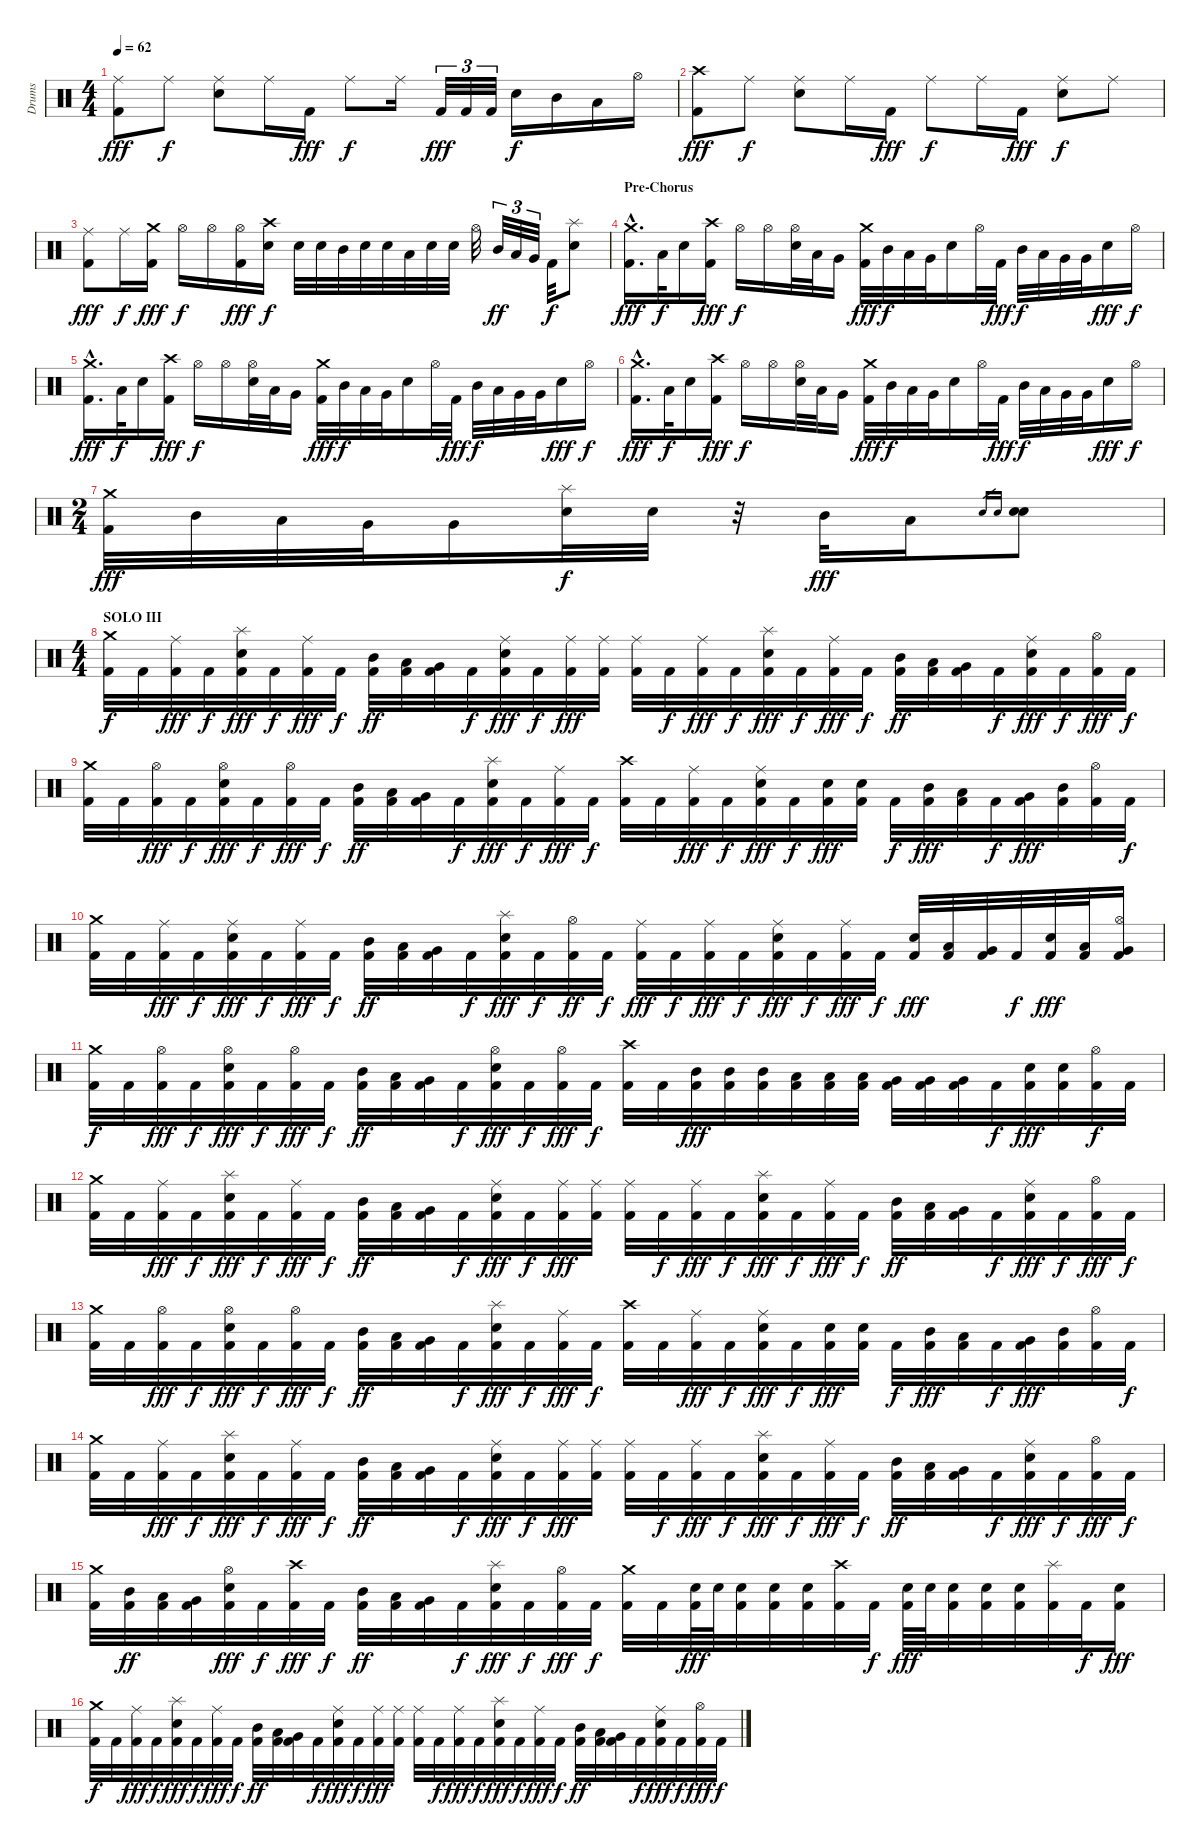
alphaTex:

\track ("Drums" "Drums") {instrument percussion}
\staff {score}
\articulation defaults
\ts (4 4)
\tempo 62
\clef neutral
\ks c
("Ride (middle)" "Kick (hit) 2").8{dy fff} "Ride (middle)".8{dy f} ("Ride (middle)" "Electric Snare (hit)").8 "Ride (middle)".16 "Kick (hit) 2".16{dy fff} "Ride (middle)".8{dy f} "Ride (middle)".16 "Kick (hit) 2".32{tu (3 2) dy fff} "Kick (hit) 2".32{tu (3 2)} "Kick (hit) 2".32{tu (3 2)} "Electric Snare (hit)".16{dy f} "Mid Tom (hit)".16 "Low Tom (hit)".16 "Hi-Hat (open)".16 |
("Crash high (hit)" "Kick (hit) 2").8{dy fff} "Ride (middle)".8{dy f} ("Ride (middle)" "Electric Snare (hit)").8 "Ride (middle)".16 "Kick (hit) 2".16{dy fff} "Ride (middle)".8{dy f} "Ride (middle)".16 "Kick (hit) 2".16{dy fff} ("Ride (middle)" "Electric Snare (hit)").8{dy f} "Ride (middle)".8 |
("Ride (middle)" "Kick (hit) 2").8{dy fff} "Ride (middle)".16{dy f} ("Crash medium (hit)" "Kick (hit) 2").16{dy fff} "Hi-Hat (open)".16{dy f} "Hi-Hat (open)".16 ("Hi-Hat (open)" "Kick (hit) 2").16{dy fff} ("Crash high (hit)" "Electric Snare (hit)").16{dy f} "Electric Snare (hit)".32 "Electric Snare (hit)".32 "Mid Tom (hit)".32 "Electric Snare (hit)".32 "Electric Snare (hit)".32 "Low Tom (hit)".32 "Electric Snare (hit)".32 "Electric Snare (hit)".32 "Hi-Hat (open)".32 "Mid Tom (hit)".32{tu (3 2) dy ff} "Low Tom (hit)".32{tu (3 2)} "Very Low Tom (hit)".32{tu (3 2)} "Kick (hit) 2".32{dy f} ("Splash (hit)" "Electric Snare (hit)").8 |
\section ("" "Pre-Chorus")
("Crash medium (hit)"{hac} "Kick (hit) 2"{hac}).16{d dy fff} "Low Tom (hit)".32{dy f} "Electric Snare (hit)".16 ("Crash high (hit)" "Kick (hit) 2").16{dy fff} "Hi-Hat (open)".16{dy f} "Hi-Hat (open)".16 ("Hi-Hat (open)" "Electric Snare (hit)").32 "Low Tom (hit)".32 "Very Low Tom (hit)".16 ("Crash medium (hit)" "Kick (hit) 2").32{dy fff} "Mid Tom (hit)".32{dy f} "Low Tom (hit)".32 "Very Low Tom (hit)".32 "Electric Snare (hit)".16 "Hi-Hat (open)".32 "Kick (hit) 2".32{dy fff} "Mid Tom (hit)".32{dy f} "Low Tom (hit)".32 "Very Low Tom (hit)".32 "Very Low Tom (hit)".32 "Electric Snare (hit)".16{dy fff} "Hi-Hat (open)".16{dy f} |
("Crash medium (hit)"{hac} "Kick (hit) 2"{hac}).16{d dy fff} "Low Tom (hit)".32{dy f} "Electric Snare (hit)".16 ("Crash high (hit)" "Kick (hit) 2").16{dy fff} "Hi-Hat (open)".16{dy f} "Hi-Hat (open)".16 ("Hi-Hat (open)" "Electric Snare (hit)").32 "Low Tom (hit)".32 "Very Low Tom (hit)".16 ("Crash medium (hit)" "Kick (hit) 2").32{dy fff} "Mid Tom (hit)".32{dy f} "Low Tom (hit)".32 "Very Low Tom (hit)".32 "Electric Snare (hit)".16 "Hi-Hat (open)".32 "Kick (hit) 2".32{dy fff} "Mid Tom (hit)".32{dy f} "Low Tom (hit)".32 "Very Low Tom (hit)".32 "Very Low Tom (hit)".32 "Electric Snare (hit)".16{dy fff} "Hi-Hat (open)".16{dy f} |
("Crash medium (hit)"{hac} "Kick (hit) 2"{hac}).16{d dy fff} "Low Tom (hit)".32{dy f} "Electric Snare (hit)".16 ("Crash high (hit)" "Kick (hit) 2").16{dy fff} "Hi-Hat (open)".16{dy f} "Hi-Hat (open)".16 ("Hi-Hat (open)" "Electric Snare (hit)").32 "Low Tom (hit)".32 "Very Low Tom (hit)".16 ("Crash medium (hit)" "Kick (hit) 2").32{dy fff} "Mid Tom (hit)".32{dy f} "Low Tom (hit)".32 "Very Low Tom (hit)".32 "Electric Snare (hit)".16 "Hi-Hat (open)".32 "Kick (hit) 2".32{dy fff} "Mid Tom (hit)".32{dy f} "Low Tom (hit)".32 "Very Low Tom (hit)".32 "Very Low Tom (hit)".32 "Electric Snare (hit)".16{dy fff} "Hi-Hat (open)".16{dy f} |
\ts (2 4)
("Crash medium (hit)" "Kick (hit) 2").32{dy fff} "Mid Tom (hit)".32 "Low Tom (hit)".32 "Very Low Tom (hit)".32 "Very Low Tom (hit)".16 ("Splash (hit)" "Electric Snare (hit)").32{dy f} "Electric Snare (hit)".32 r.32 "Mid Tom (hit)".32{dy fff} "Low Tom (hit)".16 "Electric Snare (hit)".16{gr} "Electric Snare (hit)".16{gr} ("Electric Snare (hit)" "Electric Snare (hit)").8 |
\ts (4 4)
\section ("" "SOLO III")
("Crash medium (hit)" "Kick (hit) 2").32{dy f} "Kick (hit) 2".32 ("Ride (middle)" "Kick (hit) 2").32{dy fff} "Kick (hit) 2".32{dy f} ("Splash (hit)" "Electric Snare (hit)" "Kick (hit) 2").32{dy fff} "Kick (hit) 2".32{dy f} ("Ride (middle)" "Kick (hit) 2").32{dy fff} "Kick (hit) 2".32{dy f} ("Mid Tom (hit)" "Kick (hit) 2").32{dy ff} ("Low Tom (hit)" "Kick (hit) 2").32 ("Very Low Tom (hit)" "Kick (hit) 2").32 "Kick (hit) 2".32{dy f} ("Ride (middle)" "Electric Snare (hit)" "Kick (hit) 2").32{dy fff} "Kick (hit) 2".32{dy f} ("Ride (middle)" "Kick (hit) 2").32{dy fff} ("Ride (middle)" "Kick (hit) 2").32 ("Ride (middle)" "Kick (hit) 2").32 "Kick (hit) 2".32{dy f} ("Ride (middle)" "Kick (hit) 2").32{dy fff} "Kick (hit) 2".32{dy f} ("Splash (hit)" "Electric Snare (hit)" "Kick (hit) 2").32{dy fff} "Kick (hit) 2".32{dy f} ("Ride (middle)" "Kick (hit) 2").32{dy fff} "Kick (hit) 2".32{dy f} ("Mid Tom (hit)" "Kick (hit) 2").32{dy ff} ("Low Tom (hit)" "Kick (hit) 2").32 ("Very Low Tom (hit)" "Kick (hit) 2").32 "Kick (hit) 2".32{dy f} ("Ride (middle)" "Electric Snare (hit)" "Kick (hit) 2").32{dy fff} "Kick (hit) 2".32{dy f} ("Hi-Hat (open)" "Kick (hit) 2").32{dy fff} "Kick (hit) 2".32{dy f} |
("Crash medium (hit)" "Kick (hit) 2").32 "Kick (hit) 2".32 ("Hi-Hat (open)" "Kick (hit) 2").32{dy fff} "Kick (hit) 2".32{dy f} ("Hi-Hat (open)" "Electric Snare (hit)" "Kick (hit) 2").32{dy fff} "Kick (hit) 2".32{dy f} ("Hi-Hat (open)" "Kick (hit) 2").32{dy fff} "Kick (hit) 2".32{dy f} ("Mid Tom (hit)" "Kick (hit) 2").32{dy ff} ("Low Tom (hit)" "Kick (hit) 2").32 ("Very Low Tom (hit)" "Kick (hit) 2").32 "Kick (hit) 2".32{dy f} ("Splash (hit)" "Electric Snare (hit)" "Kick (hit) 2").32{dy fff} "Kick (hit) 2".32{dy f} ("Ride (middle)" "Kick (hit) 2").32{dy fff} "Kick (hit) 2".32{dy f} ("Crash high (hit)" "Kick (hit) 2").32 "Kick (hit) 2".32 ("Ride (middle)" "Kick (hit) 2").32{dy fff} "Kick (hit) 2".32{dy f} ("Ride (middle)" "Electric Snare (hit)" "Kick (hit) 2").32{dy fff} "Kick (hit) 2".32{dy f} ("Electric Snare (hit)" "Kick (hit) 2").32{dy fff} ("Electric Snare (hit)" "Kick (hit) 2").32 "Kick (hit) 2".32{dy f} ("Mid Tom (hit)" "Kick (hit) 2").32{dy fff} ("Low Tom (hit)" "Kick (hit) 2").32 "Kick (hit) 2".32{dy f} ("Very Low Tom (hit)" "Kick (hit) 2").32{dy fff} ("Mid Tom (hit)" "Kick (hit) 2").32 ("Hi-Hat (open)" "Kick (hit) 2").32 "Kick (hit) 2".32{dy f} |
("Crash medium (hit)" "Kick (hit) 2").32 "Kick (hit) 2".32 ("Ride (middle)" "Kick (hit) 2").32{dy fff} "Kick (hit) 2".32{dy f} ("Ride (middle)" "Electric Snare (hit)" "Kick (hit) 2").32{dy fff} "Kick (hit) 2".32{dy f} ("Ride (middle)" "Kick (hit) 2").32{dy fff} "Kick (hit) 2".32{dy f} ("Mid Tom (hit)" "Kick (hit) 2").32{dy ff} ("Low Tom (hit)" "Kick (hit) 2").32 ("Very Low Tom (hit)" "Kick (hit) 2").32 "Kick (hit) 2".32{dy f} ("Splash (hit)" "Electric Snare (hit)" "Kick (hit) 2").32{dy fff} "Kick (hit) 2".32{dy f} ("Hi-Hat (open)" "Kick (hit) 2").32{dy ff} "Kick (hit) 2".32{dy f} ("Ride (middle)" "Kick (hit) 2").32{dy fff} "Kick (hit) 2".32{dy f} ("Ride (middle)" "Kick (hit) 2").32{dy fff} "Kick (hit) 2".32{dy f} ("Ride (middle)" "Electric Snare (hit)" "Kick (hit) 2").32{dy fff} "Kick (hit) 2".32{dy f} ("Ride (middle)" "Kick (hit) 2").32{dy fff} "Kick (hit) 2".32{dy f} ("Electric Snare (hit)" "Kick (hit) 2").32{dy fff} ("Low Tom (hit)" "Kick (hit) 2").32 ("Very Low Tom (hit)" "Kick (hit) 2").32 "Kick (hit) 2".32{dy f} ("Electric Snare (hit)" "Kick (hit) 2").32{dy fff} ("Low Tom (hit)" "Kick (hit) 2").32 ("Hi-Hat (open)" "Very Low Tom (hit)" "Kick (hit) 2").16 |
("Crash medium (hit)" "Kick (hit) 2").32{dy f} "Kick (hit) 2".32 ("Hi-Hat (open)" "Kick (hit) 2").32{dy fff} "Kick (hit) 2".32{dy f} ("Hi-Hat (open)" "Electric Snare (hit)" "Kick (hit) 2").32{dy fff} "Kick (hit) 2".32{dy f} ("Hi-Hat (open)" "Kick (hit) 2").32{dy fff} "Kick (hit) 2".32{dy f} ("Mid Tom (hit)" "Kick (hit) 2").32{dy ff} ("Low Tom (hit)" "Kick (hit) 2").32 ("Very Low Tom (hit)" "Kick (hit) 2").32 "Kick (hit) 2".32{dy f} ("Hi-Hat (open)" "Electric Snare (hit)" "Kick (hit) 2").32{dy fff} "Kick (hit) 2".32{dy f} ("Hi-Hat (open)" "Kick (hit) 2").32{dy fff} "Kick (hit) 2".32{dy f} ("Crash high (hit)" "Kick (hit) 2").32 "Kick (hit) 2".32 ("Mid Tom (hit)" "Kick (hit) 2").32{dy fff} ("Mid Tom (hit)" "Kick (hit) 2").32 ("Mid Tom (hit)" "Kick (hit) 2").32 ("Low Tom (hit)" "Kick (hit) 2").32 ("Low Tom (hit)" "Kick (hit) 2").32 ("Low Tom (hit)" "Kick (hit) 2").32 ("Very Low Tom (hit)" "Kick (hit) 2").32 ("Very Low Tom (hit)" "Kick (hit) 2").32 ("Very Low Tom (hit)" "Kick (hit) 2").32 "Kick (hit) 2".32{dy f} ("Electric Snare (hit)" "Kick (hit) 2").32{dy fff} ("Electric Snare (hit)" "Kick (hit) 2").32 ("Hi-Hat (open)" "Kick (hit) 2").32{dy f} "Kick (hit) 2".32 |
("Crash medium (hit)" "Kick (hit) 2").32 "Kick (hit) 2".32 ("Ride (middle)" "Kick (hit) 2").32{dy fff} "Kick (hit) 2".32{dy f} ("Splash (hit)" "Electric Snare (hit)" "Kick (hit) 2").32{dy fff} "Kick (hit) 2".32{dy f} ("Ride (middle)" "Kick (hit) 2").32{dy fff} "Kick (hit) 2".32{dy f} ("Mid Tom (hit)" "Kick (hit) 2").32{dy ff} ("Low Tom (hit)" "Kick (hit) 2").32 ("Very Low Tom (hit)" "Kick (hit) 2").32 "Kick (hit) 2".32{dy f} ("Ride (middle)" "Electric Snare (hit)" "Kick (hit) 2").32{dy fff} "Kick (hit) 2".32{dy f} ("Ride (middle)" "Kick (hit) 2").32{dy fff} ("Ride (middle)" "Kick (hit) 2").32 ("Ride (middle)" "Kick (hit) 2").32 "Kick (hit) 2".32{dy f} ("Ride (middle)" "Kick (hit) 2").32{dy fff} "Kick (hit) 2".32{dy f} ("Splash (hit)" "Electric Snare (hit)" "Kick (hit) 2").32{dy fff} "Kick (hit) 2".32{dy f} ("Ride (middle)" "Kick (hit) 2").32{dy fff} "Kick (hit) 2".32{dy f} ("Mid Tom (hit)" "Kick (hit) 2").32{dy ff} ("Low Tom (hit)" "Kick (hit) 2").32 ("Very Low Tom (hit)" "Kick (hit) 2").32 "Kick (hit) 2".32{dy f} ("Ride (middle)" "Electric Snare (hit)" "Kick (hit) 2").32{dy fff} "Kick (hit) 2".32{dy f} ("Hi-Hat (open)" "Kick (hit) 2").32{dy fff} "Kick (hit) 2".32{dy f} |
("Crash medium (hit)" "Kick (hit) 2").32 "Kick (hit) 2".32 ("Hi-Hat (open)" "Kick (hit) 2").32{dy fff} "Kick (hit) 2".32{dy f} ("Hi-Hat (open)" "Electric Snare (hit)" "Kick (hit) 2").32{dy fff} "Kick (hit) 2".32{dy f} ("Hi-Hat (open)" "Kick (hit) 2").32{dy fff} "Kick (hit) 2".32{dy f} ("Mid Tom (hit)" "Kick (hit) 2").32{dy ff} ("Low Tom (hit)" "Kick (hit) 2").32 ("Very Low Tom (hit)" "Kick (hit) 2").32 "Kick (hit) 2".32{dy f} ("Splash (hit)" "Electric Snare (hit)" "Kick (hit) 2").32{dy fff} "Kick (hit) 2".32{dy f} ("Ride (middle)" "Kick (hit) 2").32{dy fff} "Kick (hit) 2".32{dy f} ("Crash high (hit)" "Kick (hit) 2").32 "Kick (hit) 2".32 ("Ride (middle)" "Kick (hit) 2").32{dy fff} "Kick (hit) 2".32{dy f} ("Ride (middle)" "Electric Snare (hit)" "Kick (hit) 2").32{dy fff} "Kick (hit) 2".32{dy f} ("Electric Snare (hit)" "Kick (hit) 2").32{dy fff} ("Electric Snare (hit)" "Kick (hit) 2").32 "Kick (hit) 2".32{dy f} ("Mid Tom (hit)" "Kick (hit) 2").32{dy fff} ("Low Tom (hit)" "Kick (hit) 2").32 "Kick (hit) 2".32{dy f} ("Very Low Tom (hit)" "Kick (hit) 2").32{dy fff} ("Mid Tom (hit)" "Kick (hit) 2").32 ("Hi-Hat (open)" "Kick (hit) 2").32 "Kick (hit) 2".32{dy f} |
("Crash medium (hit)" "Kick (hit) 2").32 "Kick (hit) 2".32 ("Ride (middle)" "Kick (hit) 2").32{dy fff} "Kick (hit) 2".32{dy f} ("Splash (hit)" "Electric Snare (hit)" "Kick (hit) 2").32{dy fff} "Kick (hit) 2".32{dy f} ("Ride (middle)" "Kick (hit) 2").32{dy fff} "Kick (hit) 2".32{dy f} ("Mid Tom (hit)" "Kick (hit) 2").32{dy ff} ("Low Tom (hit)" "Kick (hit) 2").32 ("Very Low Tom (hit)" "Kick (hit) 2").32 "Kick (hit) 2".32{dy f} ("Ride (middle)" "Electric Snare (hit)" "Kick (hit) 2").32{dy fff} "Kick (hit) 2".32{dy f} ("Ride (middle)" "Kick (hit) 2").32{dy fff} ("Ride (middle)" "Kick (hit) 2").32 ("Ride (middle)" "Kick (hit) 2").32 "Kick (hit) 2".32{dy f} ("Ride (middle)" "Kick (hit) 2").32{dy fff} "Kick (hit) 2".32{dy f} ("Splash (hit)" "Electric Snare (hit)" "Kick (hit) 2").32{dy fff} "Kick (hit) 2".32{dy f} ("Ride (middle)" "Kick (hit) 2").32{dy fff} "Kick (hit) 2".32{dy f} ("Mid Tom (hit)" "Kick (hit) 2").32{dy ff} ("Low Tom (hit)" "Kick (hit) 2").32 ("Very Low Tom (hit)" "Kick (hit) 2").32 "Kick (hit) 2".32{dy f} ("Ride (middle)" "Electric Snare (hit)" "Kick (hit) 2").32{dy fff} "Kick (hit) 2".32{dy f} ("Hi-Hat (open)" "Kick (hit) 2").32{dy fff} "Kick (hit) 2".32{dy f} |
("Crash medium (hit)" "Kick (hit) 2").32 ("Mid Tom (hit)" "Kick (hit) 2").32{dy ff} ("Low Tom (hit)" "Kick (hit) 2").32 ("Very Low Tom (hit)" "Kick (hit) 2").32 ("Hi-Hat (open)" "Electric Snare (hit)" "Kick (hit) 2").32{dy fff} "Kick (hit) 2".32{dy f} ("Crash high (hit)" "Kick (hit) 2").32{dy fff} "Kick (hit) 2".32{dy f} ("Mid Tom (hit)" "Kick (hit) 2").32{dy ff} ("Low Tom (hit)" "Kick (hit) 2").32 ("Very Low Tom (hit)" "Kick (hit) 2").32 "Kick (hit) 2".32{dy f} ("Splash (hit)" "Electric Snare (hit)" "Kick (hit) 2").32{dy fff} "Kick (hit) 2".32{dy f} ("Hi-Hat (open)" "Kick (hit) 2").32{dy fff} "Kick (hit) 2".32{dy f} ("Crash medium (hit)" "Kick (hit) 2").32 "Kick (hit) 2".32 ("Electric Snare (hit)" "Kick (hit) 2").64{dy fff} "Electric Snare (hit)".64 ("Electric Snare (hit)" "Kick (hit) 2").32 ("Electric Snare (hit)" "Kick (hit) 2").32 ("Electric Snare (hit)" "Kick (hit) 2").32 ("Crash high (hit)" "Kick (hit) 2").32 "Kick (hit) 2".32{dy f} ("Electric Snare (hit)" "Kick (hit) 2").64{dy fff} "Electric Snare (hit)".64 ("Electric Snare (hit)" "Kick (hit) 2").32 ("Electric Snare (hit)" "Kick (hit) 2").32 ("Electric Snare (hit)" "Kick (hit) 2").32 ("Splash (hit)" "Kick (hit) 2").32 "Kick (hit) 2".32{dy f} ("Electric Snare (hit)" "Kick (hit) 2").16{dy fff} |
("Crash medium (hit)" "Kick (hit) 2").32{dy f} "Kick (hit) 2".32 ("Ride (middle)" "Kick (hit) 2").32{dy fff} "Kick (hit) 2".32{dy f} ("Splash (hit)" "Electric Snare (hit)" "Kick (hit) 2").32{dy fff} "Kick (hit) 2".32{dy f} ("Ride (middle)" "Kick (hit) 2").32{dy fff} "Kick (hit) 2".32{dy f} ("Mid Tom (hit)" "Kick (hit) 2").32{dy ff} ("Low Tom (hit)" "Kick (hit) 2").32 ("Very Low Tom (hit)" "Kick (hit) 2").32 "Kick (hit) 2".32{dy f} ("Ride (middle)" "Electric Snare (hit)" "Kick (hit) 2").32{dy fff} "Kick (hit) 2".32{dy f} ("Ride (middle)" "Kick (hit) 2").32{dy fff} ("Ride (middle)" "Kick (hit) 2").32 ("Ride (middle)" "Kick (hit) 2").32 "Kick (hit) 2".32{dy f} ("Ride (middle)" "Kick (hit) 2").32{dy fff} "Kick (hit) 2".32{dy f} ("Splash (hit)" "Electric Snare (hit)" "Kick (hit) 2").32{dy fff} "Kick (hit) 2".32{dy f} ("Ride (middle)" "Kick (hit) 2").32{dy fff} "Kick (hit) 2".32{dy f} ("Mid Tom (hit)" "Kick (hit) 2").32{dy ff} ("Low Tom (hit)" "Kick (hit) 2").32 ("Very Low Tom (hit)" "Kick (hit) 2").32 "Kick (hit) 2".32{dy f} ("Ride (middle)" "Electric Snare (hit)" "Kick (hit) 2").32{dy fff} "Kick (hit) 2".32{dy f} ("Hi-Hat (open)" "Kick (hit) 2").32{dy fff} "Kick (hit) 2".32{dy f}
